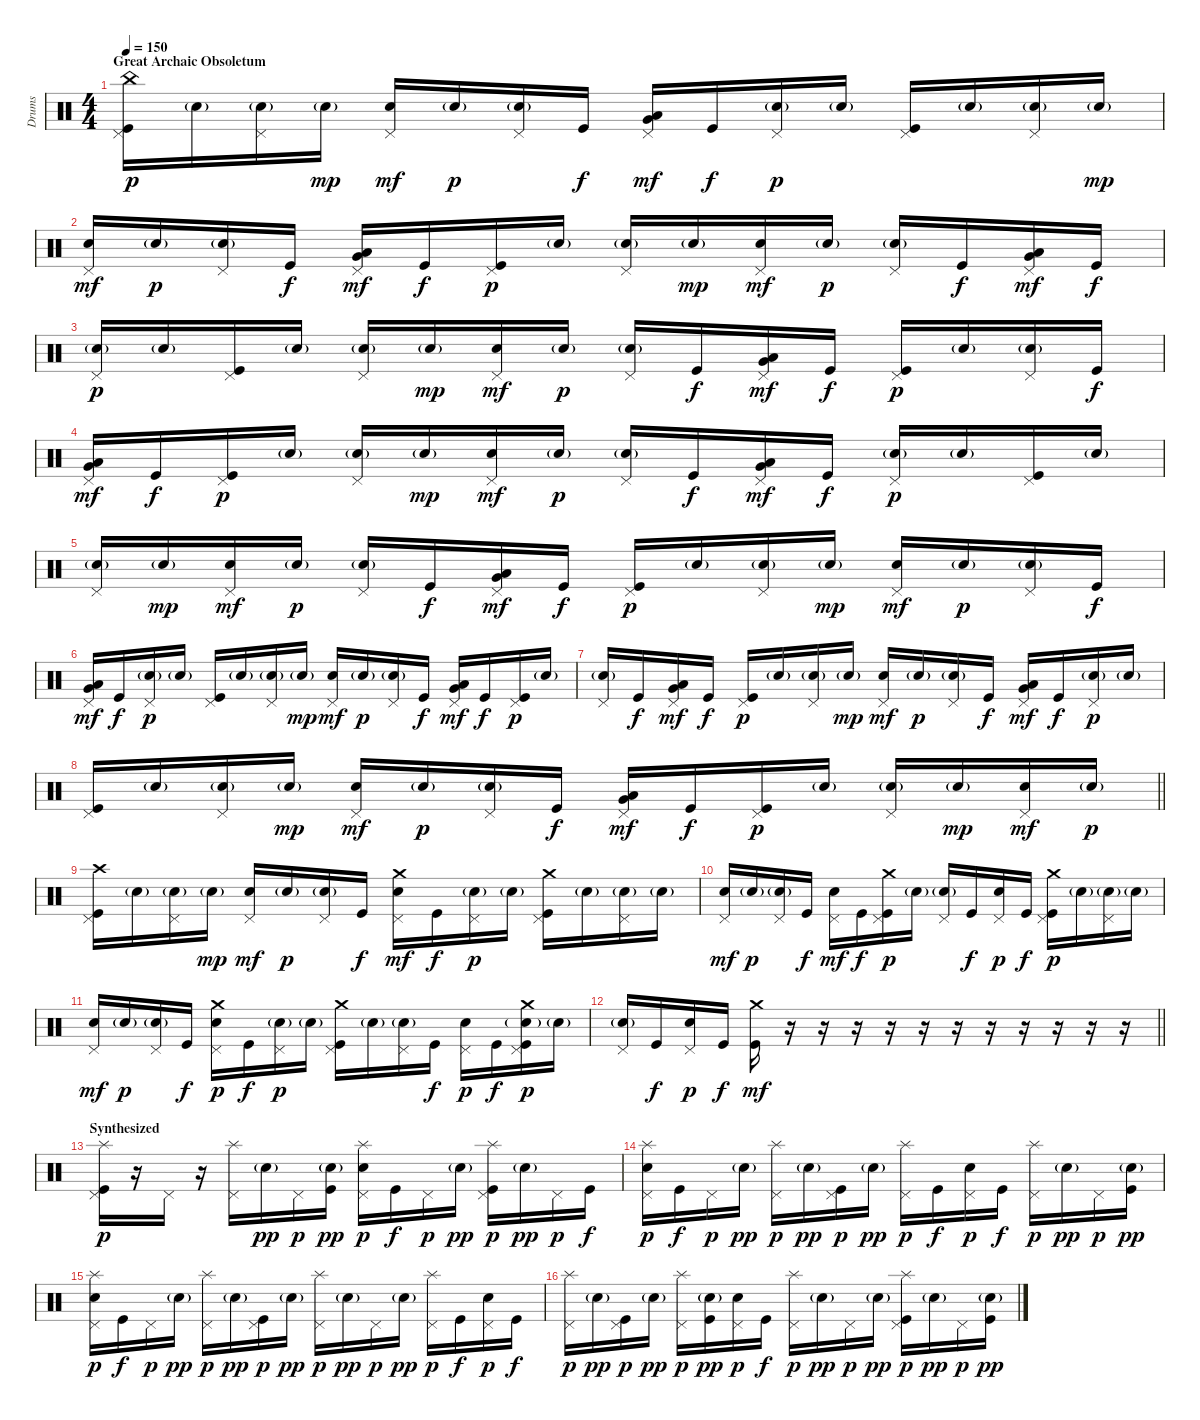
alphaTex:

\track ("Drums" "Drums") {instrument percussion}
\staff {score}
\articulation defaults
\ts (4 4)
\section ("" "Great Archaic Obsoletum")
\tempo 150
\clef neutral
\ks c
("China (hit)" "Pedal Hi-Hat (hit)" "Kick (hit)").16{dy p} "Electric Snare (hit)"{g}.16 ("Pedal Hi-Hat (hit)" "Electric Snare (hit)"{g}).16 "Electric Snare (hit)"{g}.16{dy mp} ("Pedal Hi-Hat (hit)" "Electric Snare (hit)").16{dy mf} "Electric Snare (hit)"{g}.16{dy p} ("Pedal Hi-Hat (hit)" "Electric Snare (hit)"{g}).16 "Kick (hit)".16{dy f} ("Pedal Hi-Hat (hit)" "Very Low Tom (hit)" "Low Floor Tom (hit)").16{dy mf} "Kick (hit)".16{dy f} ("Pedal Hi-Hat (hit)" "Electric Snare (hit)"{g}).16{dy p} "Electric Snare (hit)"{g}.16 ("Pedal Hi-Hat (hit)" "Kick (hit)").16 "Electric Snare (hit)"{g}.16 ("Pedal Hi-Hat (hit)" "Electric Snare (hit)"{g}).16 "Electric Snare (hit)"{g}.16{dy mp} |
("Pedal Hi-Hat (hit)" "Electric Snare (hit)").16{dy mf} "Electric Snare (hit)"{g}.16{dy p} ("Pedal Hi-Hat (hit)" "Electric Snare (hit)"{g}).16 "Kick (hit)".16{dy f} ("Pedal Hi-Hat (hit)" "Very Low Tom (hit)" "Low Floor Tom (hit)").16{dy mf} "Kick (hit)".16{dy f} ("Pedal Hi-Hat (hit)" "Kick (hit)").16{dy p} "Electric Snare (hit)"{g}.16 ("Pedal Hi-Hat (hit)" "Electric Snare (hit)"{g}).16 "Electric Snare (hit)"{g}.16{dy mp} ("Pedal Hi-Hat (hit)" "Electric Snare (hit)").16{dy mf} "Electric Snare (hit)"{g}.16{dy p} ("Pedal Hi-Hat (hit)" "Electric Snare (hit)"{g}).16 "Kick (hit)".16{dy f} ("Pedal Hi-Hat (hit)" "Very Low Tom (hit)" "Low Floor Tom (hit)").16{dy mf} "Kick (hit)".16{dy f} |
("Pedal Hi-Hat (hit)" "Electric Snare (hit)"{g}).16{dy p} "Electric Snare (hit)"{g}.16 ("Pedal Hi-Hat (hit)" "Kick (hit)").16 "Electric Snare (hit)"{g}.16 ("Pedal Hi-Hat (hit)" "Electric Snare (hit)"{g}).16 "Electric Snare (hit)"{g}.16{dy mp} ("Pedal Hi-Hat (hit)" "Electric Snare (hit)").16{dy mf} "Electric Snare (hit)"{g}.16{dy p} ("Pedal Hi-Hat (hit)" "Electric Snare (hit)"{g}).16 "Kick (hit)".16{dy f} ("Pedal Hi-Hat (hit)" "Very Low Tom (hit)" "Low Floor Tom (hit)").16{dy mf} "Kick (hit)".16{dy f} ("Pedal Hi-Hat (hit)" "Kick (hit)").16{dy p} "Electric Snare (hit)"{g}.16 ("Pedal Hi-Hat (hit)" "Electric Snare (hit)"{g}).16 "Kick (hit)".16{dy f} |
("Pedal Hi-Hat (hit)" "Very Low Tom (hit)" "Low Floor Tom (hit)").16{dy mf} "Kick (hit)".16{dy f} ("Pedal Hi-Hat (hit)" "Kick (hit)").16{dy p} "Electric Snare (hit)"{g}.16 ("Pedal Hi-Hat (hit)" "Electric Snare (hit)"{g}).16 "Electric Snare (hit)"{g}.16{dy mp} ("Pedal Hi-Hat (hit)" "Electric Snare (hit)").16{dy mf} "Electric Snare (hit)"{g}.16{dy p} ("Pedal Hi-Hat (hit)" "Electric Snare (hit)"{g}).16 "Kick (hit)".16{dy f} ("Pedal Hi-Hat (hit)" "Very Low Tom (hit)" "Low Floor Tom (hit)").16{dy mf} "Kick (hit)".16{dy f} ("Pedal Hi-Hat (hit)" "Electric Snare (hit)"{g}).16{dy p} "Electric Snare (hit)"{g}.16 ("Pedal Hi-Hat (hit)" "Kick (hit)").16 "Electric Snare (hit)"{g}.16 |
("Pedal Hi-Hat (hit)" "Electric Snare (hit)"{g}).16 "Electric Snare (hit)"{g}.16{dy mp} ("Pedal Hi-Hat (hit)" "Electric Snare (hit)").16{dy mf} "Electric Snare (hit)"{g}.16{dy p} ("Pedal Hi-Hat (hit)" "Electric Snare (hit)"{g}).16 "Kick (hit)".16{dy f} ("Pedal Hi-Hat (hit)" "Very Low Tom (hit)" "Low Floor Tom (hit)").16{dy mf} "Kick (hit)".16{dy f} ("Pedal Hi-Hat (hit)" "Kick (hit)").16{dy p} "Electric Snare (hit)"{g}.16 ("Pedal Hi-Hat (hit)" "Electric Snare (hit)"{g}).16 "Electric Snare (hit)"{g}.16{dy mp} ("Pedal Hi-Hat (hit)" "Electric Snare (hit)").16{dy mf} "Electric Snare (hit)"{g}.16{dy p} ("Pedal Hi-Hat (hit)" "Electric Snare (hit)"{g}).16 "Kick (hit)".16{dy f} |
("Pedal Hi-Hat (hit)" "Very Low Tom (hit)" "Low Floor Tom (hit)").16{dy mf} "Kick (hit)".16{dy f} ("Pedal Hi-Hat (hit)" "Electric Snare (hit)"{g}).16{dy p} "Electric Snare (hit)"{g}.16 ("Pedal Hi-Hat (hit)" "Kick (hit)").16 "Electric Snare (hit)"{g}.16 ("Pedal Hi-Hat (hit)" "Electric Snare (hit)"{g}).16 "Electric Snare (hit)"{g}.16{dy mp} ("Pedal Hi-Hat (hit)" "Electric Snare (hit)").16{dy mf} "Electric Snare (hit)"{g}.16{dy p} ("Pedal Hi-Hat (hit)" "Electric Snare (hit)"{g}).16 "Kick (hit)".16{dy f} ("Pedal Hi-Hat (hit)" "Very Low Tom (hit)" "Low Floor Tom (hit)").16{dy mf} "Kick (hit)".16{dy f} ("Pedal Hi-Hat (hit)" "Kick (hit)").16{dy p} "Electric Snare (hit)"{g}.16 |
("Pedal Hi-Hat (hit)" "Electric Snare (hit)"{g}).16 "Kick (hit)".16{dy f} ("Pedal Hi-Hat (hit)" "Very Low Tom (hit)" "Low Floor Tom (hit)").16{dy mf} "Kick (hit)".16{dy f} ("Pedal Hi-Hat (hit)" "Kick (hit)").16{dy p} "Electric Snare (hit)"{g}.16 ("Pedal Hi-Hat (hit)" "Electric Snare (hit)"{g}).16 "Electric Snare (hit)"{g}.16{dy mp} ("Pedal Hi-Hat (hit)" "Electric Snare (hit)").16{dy mf} "Electric Snare (hit)"{g}.16{dy p} ("Pedal Hi-Hat (hit)" "Electric Snare (hit)"{g}).16 "Kick (hit)".16{dy f} ("Pedal Hi-Hat (hit)" "Very Low Tom (hit)" "Low Floor Tom (hit)").16{dy mf} "Kick (hit)".16{dy f} ("Pedal Hi-Hat (hit)" "Electric Snare (hit)"{g}).16{dy p} "Electric Snare (hit)"{g}.16 |
\barLineRight lightlight
("Pedal Hi-Hat (hit)" "Kick (hit)").16 "Electric Snare (hit)"{g}.16 ("Pedal Hi-Hat (hit)" "Electric Snare (hit)"{g}).16 "Electric Snare (hit)"{g}.16{dy mp} ("Pedal Hi-Hat (hit)" "Electric Snare (hit)").16{dy mf} "Electric Snare (hit)"{g}.16{dy p} ("Pedal Hi-Hat (hit)" "Electric Snare (hit)"{g}).16 "Kick (hit)".16{dy f} ("Pedal Hi-Hat (hit)" "Very Low Tom (hit)" "Low Floor Tom (hit)").16{dy mf} "Kick (hit)".16{dy f} ("Pedal Hi-Hat (hit)" "Kick (hit)").16{dy p} "Electric Snare (hit)"{g}.16 ("Pedal Hi-Hat (hit)" "Electric Snare (hit)"{g}).16 "Electric Snare (hit)"{g}.16{dy mp} ("Pedal Hi-Hat (hit)" "Electric Snare (hit)").16{dy mf} "Electric Snare (hit)"{g}.16{dy p} |
("Crash high (hit)" "Pedal Hi-Hat (hit)" "Kick (hit)").16 "Electric Snare (hit)"{g}.16 ("Pedal Hi-Hat (hit)" "Electric Snare (hit)"{g}).16 "Electric Snare (hit)"{g}.16{dy mp} ("Pedal Hi-Hat (hit)" "Electric Snare (hit)").16{dy mf} "Electric Snare (hit)"{g}.16{dy p} ("Pedal Hi-Hat (hit)" "Electric Snare (hit)"{g}).16 "Kick (hit)".16{dy f} ("Crash medium (hit)" "Pedal Hi-Hat (hit)" "Electric Snare (hit)").16{dy mf} "Kick (hit)".16{dy f} ("Pedal Hi-Hat (hit)" "Electric Snare (hit)"{g}).16{dy p} "Electric Snare (hit)"{g}.16 ("Crash medium (hit)" "Pedal Hi-Hat (hit)" "Kick (hit)").16 "Electric Snare (hit)"{g}.16 ("Pedal Hi-Hat (hit)" "Electric Snare (hit)"{g}).16 "Electric Snare (hit)"{g}.16 |
("Pedal Hi-Hat (hit)" "Electric Snare (hit)").16{dy mf} "Electric Snare (hit)"{g}.16{dy p} ("Pedal Hi-Hat (hit)" "Electric Snare (hit)"{g}).16 "Kick (hit)".16{dy f} ("Pedal Hi-Hat (hit)" "Electric Snare (hit)").16{dy mf} "Kick (hit)".16{dy f} ("Crash medium (hit)" "Pedal Hi-Hat (hit)" "Kick (hit)").16{dy p} "Electric Snare (hit)"{g}.16 ("Pedal Hi-Hat (hit)" "Electric Snare (hit)"{g}).16 "Kick (hit)".16{dy f} ("Pedal Hi-Hat (hit)" "Electric Snare (hit)").16{dy p} "Kick (hit)".16{dy f} ("Crash medium (hit)" "Pedal Hi-Hat (hit)" "Kick (hit)").16{dy p} "Electric Snare (hit)"{g}.16 ("Pedal Hi-Hat (hit)" "Electric Snare (hit)"{g}).16 "Electric Snare (hit)"{g}.16 |
("Pedal Hi-Hat (hit)" "Electric Snare (hit)").16{dy mf} "Electric Snare (hit)"{g}.16{dy p} ("Pedal Hi-Hat (hit)" "Electric Snare (hit)"{g}).16 "Kick (hit)".16{dy f} ("Crash medium (hit)" "Pedal Hi-Hat (hit)" "Electric Snare (hit)").16{dy p} "Kick (hit)".16{dy f} ("Pedal Hi-Hat (hit)" "Electric Snare (hit)"{g}).16{dy p} "Electric Snare (hit)"{g}.16 ("Crash medium (hit)" "Pedal Hi-Hat (hit)" "Kick (hit)").16 "Electric Snare (hit)"{g}.16 ("Pedal Hi-Hat (hit)" "Electric Snare (hit)"{g}).16 "Kick (hit)".16{dy f} ("Pedal Hi-Hat (hit)" "Electric Snare (hit)").16{dy p} "Kick (hit)".16{dy f} ("Crash medium (hit)" "Pedal Hi-Hat (hit)" "Electric Snare (hit)"{g} "Kick (hit)").16{dy p} "Electric Snare (hit)"{g}.16 |
\barLineRight lightlight
("Pedal Hi-Hat (hit)" "Electric Snare (hit)"{g}).16 "Kick (hit)".16{dy f} ("Pedal Hi-Hat (hit)" "Electric Snare (hit)").16{dy p} "Kick (hit)".16{dy f} ("Crash medium (hit)" "Kick (hit)").16{dy mf} r.16 r.16 r.16 r.16 r.16 r.16 r.16 r.16 r.16 r.16 r.16 |
\section ("" "Synthesized")
("Splash (hit)" "Pedal Hi-Hat (hit)" "Kick (hit)").16{dy p} r.16 "Pedal Hi-Hat (hit)".16 r.16 ("Splash (hit)" "Pedal Hi-Hat (hit)").16 "Electric Snare (hit)"{g}.16{dy pp} "Pedal Hi-Hat (hit)".16{dy p} ("Electric Snare (hit)"{g} "Kick (hit)").16{dy pp} ("Splash (hit)" "Pedal Hi-Hat (hit)" "Electric Snare (hit)").16{dy p} "Kick (hit)".16{dy f} "Pedal Hi-Hat (hit)".16{dy p} "Electric Snare (hit)"{g}.16{dy pp} ("Splash (hit)" "Pedal Hi-Hat (hit)" "Kick (hit)").16{dy p} "Electric Snare (hit)"{g}.16{dy pp} "Pedal Hi-Hat (hit)".16{dy p} "Kick (hit)".16{dy f} |
("Splash (hit)" "Pedal Hi-Hat (hit)" "Electric Snare (hit)").16{dy p} "Kick (hit)".16{dy f} "Pedal Hi-Hat (hit)".16{dy p} "Electric Snare (hit)"{g}.16{dy pp} ("Splash (hit)" "Pedal Hi-Hat (hit)").16{dy p} "Electric Snare (hit)"{g}.16{dy pp} ("Pedal Hi-Hat (hit)" "Kick (hit)").16{dy p} "Electric Snare (hit)"{g}.16{dy pp} ("Splash (hit)" "Pedal Hi-Hat (hit)").16{dy p} "Kick (hit)".16{dy f} ("Pedal Hi-Hat (hit)" "Electric Snare (hit)").16{dy p} "Kick (hit)".16{dy f} ("Splash (hit)" "Pedal Hi-Hat (hit)").16{dy p} "Electric Snare (hit)"{g}.16{dy pp} "Pedal Hi-Hat (hit)".16{dy p} ("Electric Snare (hit)"{g} "Kick (hit)").16{dy pp} |
("Splash (hit)" "Pedal Hi-Hat (hit)" "Electric Snare (hit)").16{dy p} "Kick (hit)".16{dy f} "Pedal Hi-Hat (hit)".16{dy p} "Electric Snare (hit)"{g}.16{dy pp} ("Splash (hit)" "Pedal Hi-Hat (hit)").16{dy p} "Electric Snare (hit)"{g}.16{dy pp} ("Pedal Hi-Hat (hit)" "Kick (hit)").16{dy p} "Electric Snare (hit)"{g}.16{dy pp} ("Splash (hit)" "Pedal Hi-Hat (hit)").16{dy p} "Electric Snare (hit)"{g}.16{dy pp} "Pedal Hi-Hat (hit)".16{dy p} "Electric Snare (hit)"{g}.16{dy pp} ("Splash (hit)" "Pedal Hi-Hat (hit)").16{dy p} "Kick (hit)".16{dy f} ("Pedal Hi-Hat (hit)" "Electric Snare (hit)").16{dy p} "Kick (hit)".16{dy f} |
("Splash (hit)" "Pedal Hi-Hat (hit)").16{dy p} "Electric Snare (hit)"{g}.16{dy pp} ("Pedal Hi-Hat (hit)" "Kick (hit)").16{dy p} "Electric Snare (hit)"{g}.16{dy pp} ("Splash (hit)" "Pedal Hi-Hat (hit)").16{dy p} ("Electric Snare (hit)"{g} "Kick (hit)").16{dy pp} ("Pedal Hi-Hat (hit)" "Electric Snare (hit)").16{dy p} "Kick (hit)".16{dy f} ("Splash (hit)" "Pedal Hi-Hat (hit)").16{dy p} "Electric Snare (hit)"{g}.16{dy pp} "Pedal Hi-Hat (hit)".16{dy p} "Electric Snare (hit)"{g}.16{dy pp} ("Splash (hit)" "Pedal Hi-Hat (hit)" "Kick (hit)").16{dy p} "Electric Snare (hit)"{g}.16{dy pp} "Pedal Hi-Hat (hit)".16{dy p} ("Electric Snare (hit)"{g} "Kick (hit)").16{dy pp}
